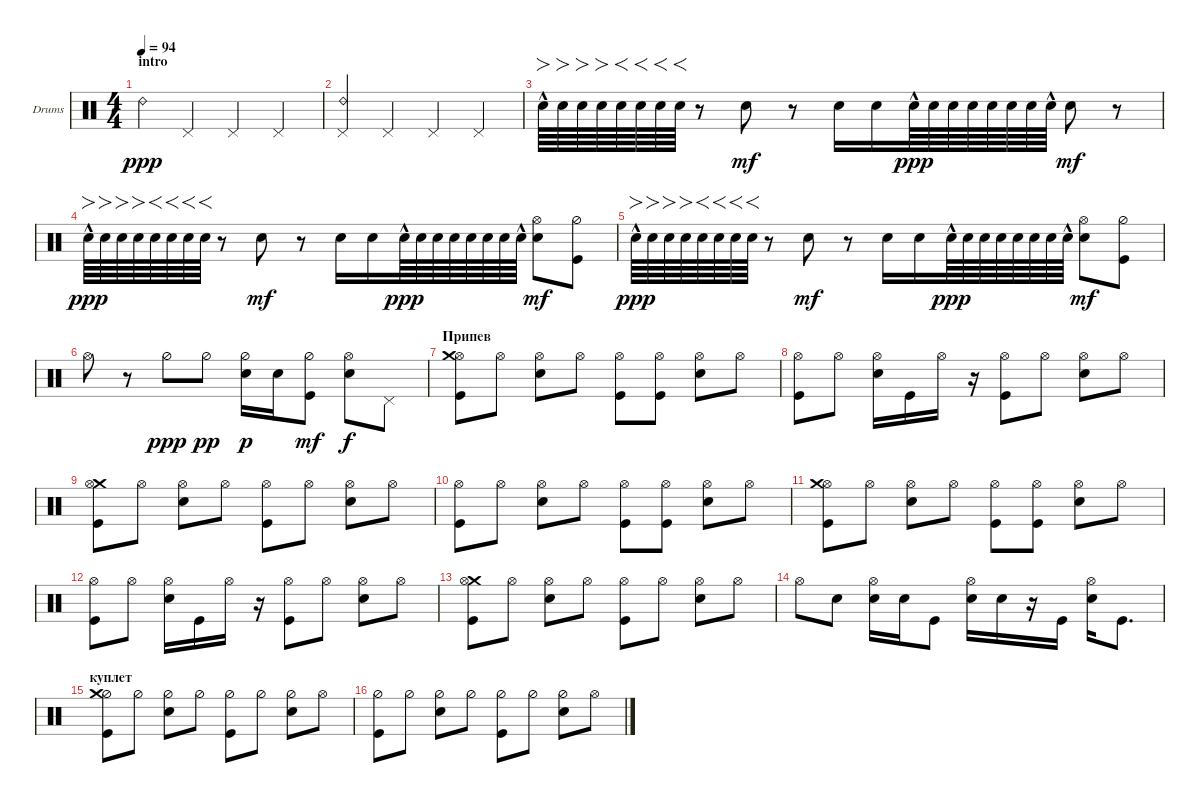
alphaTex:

\defaultSystemsLayout 4
\bracketExtendMode groupsimilarinstruments
\firstSystemTrackNameOrientation horizontal
\otherSystemsTrackNameOrientation horizontal
\track ("Drumkit" "Drums") {instrument percussion}
\staff {score}
\articulation defaults
\ts (4 4)
\section ("" "intro")
\tempo 94
\clef neutral
\scale
0.474178
\ks c "Ride (bell) 2".4{dy ppp} "Pedal Hi-Hat (hit)".4 "Pedal Hi-Hat (hit)".4 "Pedal Hi-Hat (hit)".4
|
\scale
0.262911 ("Pedal Hi-Hat (hit)" "Ride (bell) 2").4 "Pedal Hi-Hat (hit)".4 "Pedal Hi-Hat (hit)".4 "Pedal Hi-Hat (hit)".4 |
\scale
0.262911 "Snare (hit) 2"{hac}.64{fo} "Snare (hit) 2".64{fo} "Snare (hit) 2".64{fo} "Snare (hit) 2".64{fo} "Snare (hit) 2".64{f} "Snare (hit) 2".64{f} "Snare (hit) 2".64{f} "Snare (hit) 2".64{f} r.8 "Snare (hit) 2".8{dy mf} r.8 "Snare (hit) 2".16 "Snare (hit) 2".16 "Snare (hit) 2"{hac}.64{dy ppp} "Snare (hit) 2".64 "Snare (hit) 2".64 "Snare (hit) 2".64 "Snare (hit) 2".64 "Snare (hit) 2".64 "Snare (hit) 2".64 "Snare (hit) 2"{hac}.64 "Snare (hit) 2".8{dy mf} r.8 |
\scale
0.333333 "Snare (hit) 2"{hac}.64{fo dy ppp} "Snare (hit) 2".64{fo} "Snare (hit) 2".64{fo} "Snare (hit) 2".64{fo} "Snare (hit) 2".64{f} "Snare (hit) 2".64{f} "Snare (hit) 2".64{f} "Snare (hit) 2".64{f} r.8 "Snare (hit) 2".8{dy mf} r.8 "Snare (hit) 2".16 "Snare (hit) 2".16 "Snare (hit) 2"{hac}.64{dy ppp} "Snare (hit) 2".64 "Snare (hit) 2".64 "Snare (hit) 2".64 "Snare (hit) 2".64 "Snare (hit) 2".64 "Snare (hit) 2".64 "Snare (hit) 2"{hac}.64 ("Snare (hit) 2" "Hi-Hat (open)").8{dy mf} ("Kick (hit)" "Hi-Hat (half)").8 |
\scale
0.333333 "Snare (hit) 2"{hac}.64{fo dy ppp} "Snare (hit) 2".64{fo} "Snare (hit) 2".64{fo} "Snare (hit) 2".64{fo} "Snare (hit) 2".64{f} "Snare (hit) 2".64{f} "Snare (hit) 2".64{f} "Snare (hit) 2".64{f} r.8 "Snare (hit) 2".8{dy mf} r.8 "Snare (hit) 2".16 "Snare (hit) 2".16 "Snare (hit) 2"{hac}.64{dy ppp} "Snare (hit) 2".64 "Snare (hit) 2".64 "Snare (hit) 2".64 "Snare (hit) 2".64 "Snare (hit) 2".64 "Snare (hit) 2".64 "Snare (hit) 2"{hac}.64 ("Snare (hit) 2" "Hi-Hat (open)").8{dy mf} ("Kick (hit)" "Hi-Hat (half)").8 |
\scale
0.333333 "Hi-Hat (open)".8 r.8 "Hi-Hat (half)".8{dy ppp} "Hi-Hat (half)".8{dy pp} ("Snare (hit) 2" "Hi-Hat (half)").16{dy p} "Snare (hit) 2".16 ("Kick (hit)" "Hi-Hat (half)").8{dy mf} ("Snare (hit) 2" "Hi-Hat (open)").8{dy f} "Pedal Hi-Hat (hit)".8 |
\section ("" "Припев")
\scale
0.333333 ("Kick (hit)" "Hi-Hat (open)" "Crash medium (hit)").8 "Hi-Hat (open)".8 ("Snare (hit) 2" "Hi-Hat (open)").8 "Hi-Hat (open)".8 ("Kick (hit)" "Hi-Hat (open)").8 ("Kick (hit)" "Hi-Hat (open)").8 ("Snare (hit) 2" "Hi-Hat (open)").8 "Hi-Hat (open)".8 |
\scale
0.333333 ("Kick (hit)" "Hi-Hat (open)").8 "Hi-Hat (open)".8 ("Snare (hit) 2" "Hi-Hat (open)").16 "Kick (hit)".16 "Hi-Hat (open)".16 r.16 ("Hi-Hat (open)" "Kick (hit)").8 "Hi-Hat (open)".8 ("Hi-Hat (open)" "Snare (hit) 2").8 "Hi-Hat (open)".8 |
\scale
0.333333 ("Kick (hit)" "Crash medium (hit)" "Hi-Hat (open)").8 "Hi-Hat (open)".8 ("Snare (hit) 2" "Hi-Hat (open)").8 "Hi-Hat (open)".8 ("Kick (hit)" "Hi-Hat (open)").8 "Hi-Hat (open)".8 ("Snare (hit) 2" "Hi-Hat (open)").8 "Hi-Hat (open)".8 |
\scale
0.333333 ("Kick (hit)" "Hi-Hat (open)").8 "Hi-Hat (open)".8 ("Snare (hit) 2" "Hi-Hat (open)").8 "Hi-Hat (open)".8 ("Kick (hit)" "Hi-Hat (open)").8 ("Kick (hit)" "Hi-Hat (open)").8 ("Snare (hit) 2" "Hi-Hat (open)").8 "Hi-Hat (open)".8 |
\scale
0.333333 ("Kick (hit)" "Hi-Hat (open)" "Crash medium (hit)").8 "Hi-Hat (open)".8 ("Snare (hit) 2" "Hi-Hat (open)").8 "Hi-Hat (open)".8 ("Kick (hit)" "Hi-Hat (open)").8 ("Kick (hit)" "Hi-Hat (open)").8 ("Snare (hit) 2" "Hi-Hat (open)").8 "Hi-Hat (open)".8 |
\scale
0.333333 ("Kick (hit)" "Hi-Hat (open)").8 "Hi-Hat (open)".8 ("Snare (hit) 2" "Hi-Hat (open)").16 "Kick (hit)".16 "Hi-Hat (open)".16 r.16 ("Hi-Hat (open)" "Kick (hit)").8 "Hi-Hat (open)".8 ("Hi-Hat (open)" "Snare (hit) 2").8 "Hi-Hat (open)".8 |
\scale
0.333333 ("Kick (hit)" "Crash medium (hit)" "Hi-Hat (open)").8 "Hi-Hat (open)".8 ("Snare (hit) 2" "Hi-Hat (open)").8 "Hi-Hat (open)".8 ("Kick (hit)" "Hi-Hat (open)").8 "Hi-Hat (open)".8 ("Snare (hit) 2" "Hi-Hat (open)").8 "Hi-Hat (open)".8 |
\scale
0.333333 "Hi-Hat (open)".8 "Snare (hit) 2".8 ("Snare (hit) 2" "Hi-Hat (open)").16 "Snare (hit) 2".16 "Kick (hit)".8 ("Snare (hit) 2" "Hi-Hat (open)").16 "Snare (hit) 2".16 r.16 "Kick (hit)".16 ("Snare (hit) 2" "Hi-Hat (open)").16 "Kick (hit)".8{d} |
\section ("" "куплет")
\scale
0.333333 ("Kick (hit)" "Hi-Hat (half)" "Crash medium (hit)").8 "Hi-Hat (half)".8 ("Snare (hit) 2" "Hi-Hat (half)").8 "Hi-Hat (half)".8 ("Kick (hit)" "Hi-Hat (half)").8 "Hi-Hat (half)".8 ("Snare (hit) 2" "Hi-Hat (half)").8 "Hi-Hat (open)".8 |
\scale
0.333333 ("Kick (hit)" "Hi-Hat (half)").8 "Hi-Hat (half)".8 ("Snare (hit) 2" "Hi-Hat (half)").8 "Hi-Hat (half)".8 ("Kick (hit)" "Hi-Hat (half)").8 "Hi-Hat (half)".8 ("Snare (hit) 2" "Hi-Hat (half)").8 "Hi-Hat (open)".8
